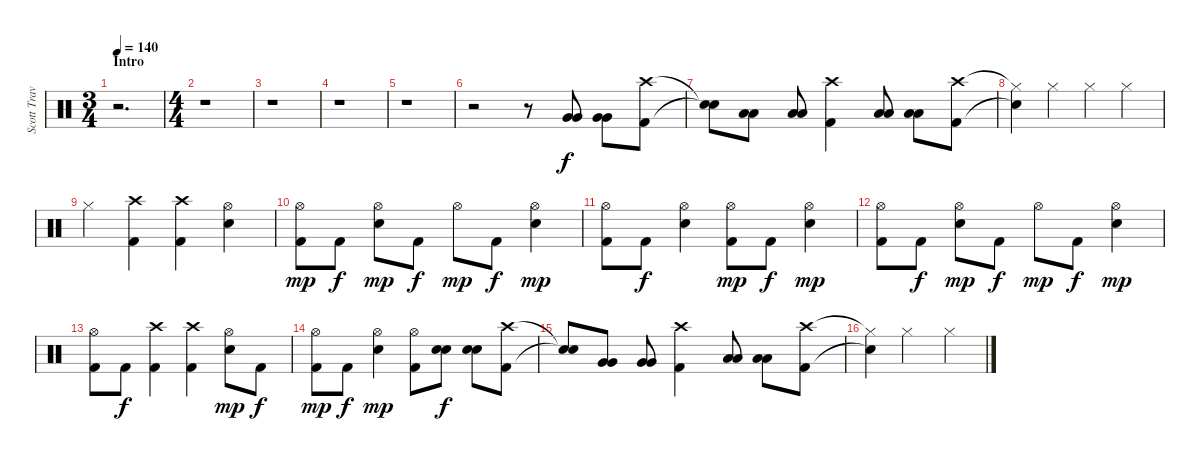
\track ("Scott Travis" "Scott Trav") {instrument percussion}
\staff {score}
\articulation defaults
\ts (3 4)
\section ("" "Intro")
\tempo 140
\clef neutral
\ks c
r.2{d dy f} |
\ts (4 4)
r.1 |
r.1 |
r.1 |
r.1 |
r.2 r.8 ("Very Low Tom (hit)" "Very Low Tom (hit)").8 ("Very Low Tom (hit)" "Very Low Tom (hit)").8 ("Crash high (hit)" "Kick (hit) 2").8 |
("Snare (hit)"{t} "Snare (hit)"{t}).8 ("Low Tom (hit)" "Low Tom (hit)").8 ("Low Tom (hit)" "Low Tom (hit)").8 ("Crash high (hit)" "Kick (hit) 2").4 ("Low Floor Tom (hit)" "Low Floor Tom (hit)").8 ("Low Floor Tom (hit)" "Low Floor Tom (hit)").8 ("Crash high (hit)" "Kick (hit) 2").8 |
("Hi-Hat (closed)"{t} "Snare (hit)"{t}).4 "Hi-Hat (closed)".4 "Hi-Hat (closed)".4 "Hi-Hat (closed)".4 |
"Hi-Hat (closed)".4 ("Crash high (hit)" "Kick (hit) 2").4 ("Crash high (hit)" "Kick (hit) 2").4 ("Hi-Hat (open)" "Snare (hit) 2").4 |
("Hi-Hat (open)" "Kick (hit) 2").8{dy mp} "Kick (hit) 2".8{dy f} ("Hi-Hat (open)" "Snare (hit) 2").8{dy mp} "Kick (hit) 2".8{dy f} "Hi-Hat (open)".8{dy mp} "Kick (hit) 2".8{dy f} ("Hi-Hat (open)" "Snare (hit) 2").4{dy mp} |
("Hi-Hat (open)" "Kick (hit) 2").8 "Kick (hit) 2".8{dy f} ("Hi-Hat (open)" "Snare (hit) 2").4 ("Hi-Hat (open)" "Kick (hit) 2").8{dy mp} "Kick (hit) 2".8{dy f} ("Hi-Hat (open)" "Snare (hit) 2").4{dy mp} |
("Hi-Hat (open)" "Kick (hit) 2").8 "Kick (hit) 2".8{dy f} ("Hi-Hat (open)" "Snare (hit) 2").8{dy mp} "Kick (hit) 2".8{dy f} "Hi-Hat (open)".8{dy mp} "Kick (hit) 2".8{dy f} ("Hi-Hat (open)" "Snare (hit) 2").4{dy mp} |
("Hi-Hat (open)" "Kick (hit) 2").8 "Kick (hit) 2".8{dy f} ("Crash high (hit)" "Kick (hit) 2").4 ("Crash high (hit)" "Kick (hit) 2").4 ("Hi-Hat (open)" "Snare (hit) 2").8{dy mp} "Kick (hit) 2".8{dy f} |
("Hi-Hat (open)" "Kick (hit) 2").8{dy mp} "Kick (hit) 2".8{dy f} ("Hi-Hat (open)" "Snare (hit) 2").4{dy mp} ("Hi-Hat (open)" "Kick (hit) 2").8 ("Snare (hit) 2" "Snare (hit) 2").8{dy f} ("Snare (hit) 2" "Snare (hit) 2").8 ("Crash high (hit)" "Kick (hit) 2").8 |
("Snare (hit)"{t} "Snare (hit)"{t}).8 ("Very Low Tom (hit)" "Very Low Tom (hit)").8 ("Very Low Tom (hit)" "Very Low Tom (hit)").8 ("Crash high (hit)" "Kick (hit) 2").4 ("Low Tom (hit)" "Low Tom (hit)").8 ("Low Tom (hit)" "Low Tom (hit)").8 ("Crash high (hit)" "Kick (hit) 2").8 |
("Hi-Hat (closed)"{t} "Snare (hit)"{t}).4 "Hi-Hat (closed)".2 "Hi-Hat (closed)".4
